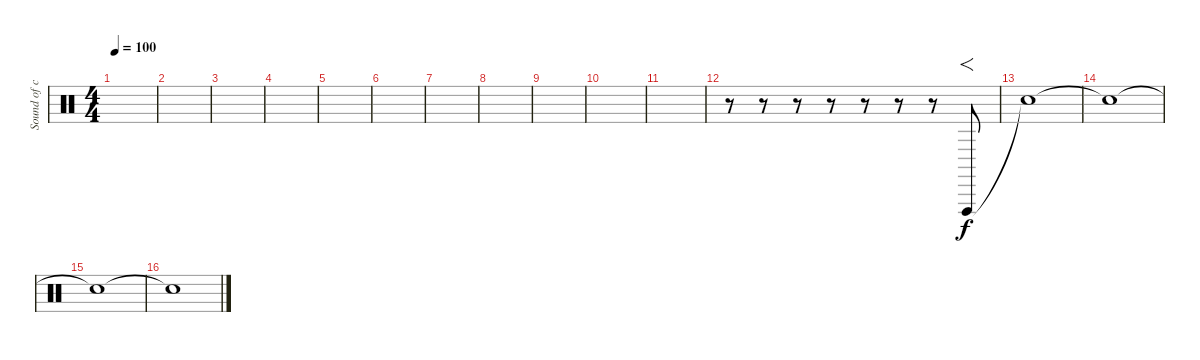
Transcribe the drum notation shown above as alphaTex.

\track ("Sound of crowd" "Sound of c") {instrument percussion}
\staff {score}
\articulation defaults
\ts (4 4)
\tempo 100
\clef neutral
\ks c
|
|
|
|
|
|
|
|
|
|
|
r.8 r.8 r.8 r.8 r.8 r.8 r.8 "Vibraslap (hit)".8{f} |
"Snare (hit)"{t}.1 |
"Snare (hit)"{t}.1 |
"Snare (hit)"{t}.1 |
"Snare (hit)"{t}.1
